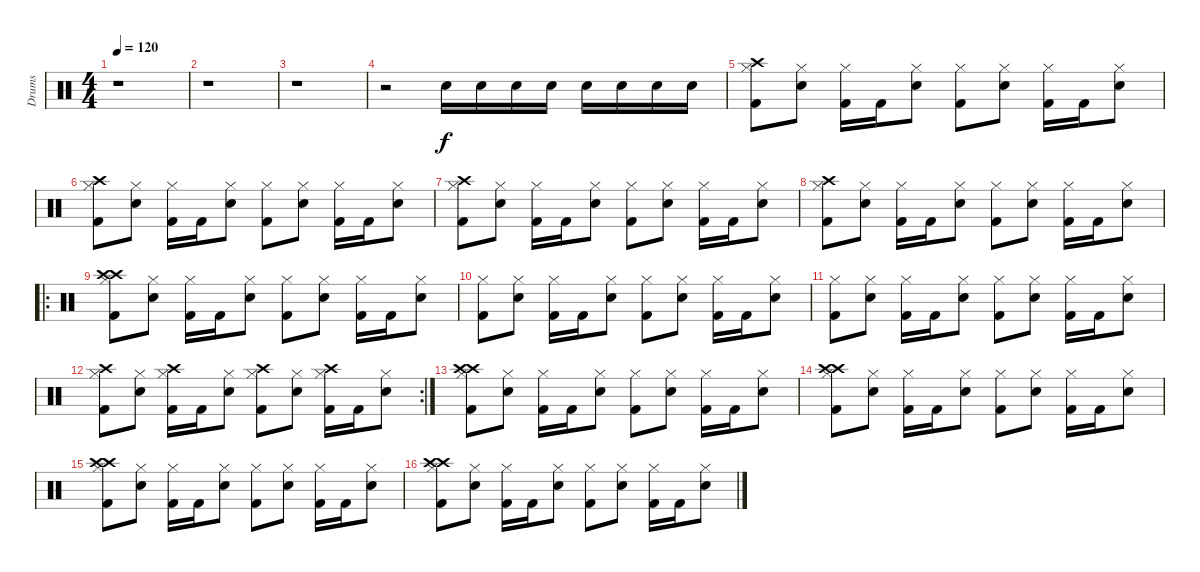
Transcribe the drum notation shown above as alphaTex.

\track ("Drums" "Drums") {instrument percussion}
\staff {score}
\articulation defaults
\ts (4 4)
\tempo 120
\clef neutral
\ks c
r.1{dy f} |
r.1 |
r.1 |
r.2 "Snare (hit) 2".16 "Snare (hit) 2".16 "Snare (hit) 2".16 "Snare (hit) 2".16 "Snare (hit) 2".16 "Snare (hit) 2".16 "Snare (hit) 2".16 "Snare (hit) 2".16 |
("Hi-Hat (closed)" "Crash high (hit)" "Kick (hit) 2").8 ("Hi-Hat (closed)" "Electric Snare (hit)").8 ("Hi-Hat (closed)" "Kick (hit) 2").16 "Kick (hit) 2".16 ("Hi-Hat (closed)" "Electric Snare (hit)").8 ("Hi-Hat (closed)" "Kick (hit) 2").8 ("Hi-Hat (closed)" "Electric Snare (hit)").8 ("Hi-Hat (closed)" "Kick (hit) 2").16 "Kick (hit) 2".16 ("Hi-Hat (closed)" "Electric Snare (hit)").8 |
("Hi-Hat (closed)" "Crash high (hit)" "Kick (hit) 2").8 ("Hi-Hat (closed)" "Electric Snare (hit)").8 ("Hi-Hat (closed)" "Kick (hit) 2").16 "Kick (hit) 2".16 ("Hi-Hat (closed)" "Electric Snare (hit)").8 ("Hi-Hat (closed)" "Kick (hit) 2").8 ("Hi-Hat (closed)" "Electric Snare (hit)").8 ("Hi-Hat (closed)" "Kick (hit) 2").16 "Kick (hit) 2".16 ("Hi-Hat (closed)" "Electric Snare (hit)").8 |
("Hi-Hat (closed)" "Crash high (hit)" "Kick (hit) 2").8 ("Hi-Hat (closed)" "Electric Snare (hit)").8 ("Hi-Hat (closed)" "Kick (hit) 2").16 "Kick (hit) 2".16 ("Hi-Hat (closed)" "Electric Snare (hit)").8 ("Hi-Hat (closed)" "Kick (hit) 2").8 ("Hi-Hat (closed)" "Electric Snare (hit)").8 ("Hi-Hat (closed)" "Kick (hit) 2").16 "Kick (hit) 2".16 ("Hi-Hat (closed)" "Electric Snare (hit)").8 |
("Hi-Hat (closed)" "Crash high (hit)" "Kick (hit) 2").8 ("Hi-Hat (closed)" "Electric Snare (hit)").8 ("Hi-Hat (closed)" "Kick (hit) 2").16 "Kick (hit) 2".16 ("Hi-Hat (closed)" "Electric Snare (hit)").8 ("Hi-Hat (closed)" "Kick (hit) 2").8 ("Hi-Hat (closed)" "Electric Snare (hit)").8 ("Hi-Hat (closed)" "Kick (hit) 2").16 "Kick (hit) 2".16 ("Hi-Hat (closed)" "Electric Snare (hit)").8 |
\ro
("Crash high (hit)" "Hi-Hat (closed)" "Crash high (hit)" "Kick (hit) 2").8 ("Hi-Hat (closed)" "Electric Snare (hit)").8 ("Hi-Hat (closed)" "Kick (hit) 2").16 "Kick (hit) 2".16 ("Hi-Hat (closed)" "Electric Snare (hit)").8 ("Hi-Hat (closed)" "Kick (hit) 2").8 ("Hi-Hat (closed)" "Electric Snare (hit)").8 ("Hi-Hat (closed)" "Kick (hit) 2").16 "Kick (hit) 2".16 ("Hi-Hat (closed)" "Electric Snare (hit)").8 |
("Hi-Hat (closed)" "Kick (hit) 2").8 ("Hi-Hat (closed)" "Electric Snare (hit)").8 ("Hi-Hat (closed)" "Kick (hit) 2").16 "Kick (hit) 2".16 ("Hi-Hat (closed)" "Electric Snare (hit)").8 ("Hi-Hat (closed)" "Kick (hit) 2").8 ("Hi-Hat (closed)" "Electric Snare (hit)").8 ("Hi-Hat (closed)" "Kick (hit) 2").16 "Kick (hit) 2".16 ("Hi-Hat (closed)" "Electric Snare (hit)").8 |
("Hi-Hat (closed)" "Kick (hit) 2").8 ("Hi-Hat (closed)" "Electric Snare (hit)").8 ("Hi-Hat (closed)" "Kick (hit) 2").16 "Kick (hit) 2".16 ("Hi-Hat (closed)" "Electric Snare (hit)").8 ("Hi-Hat (closed)" "Kick (hit) 2").8 ("Hi-Hat (closed)" "Electric Snare (hit)").8 ("Hi-Hat (closed)" "Kick (hit) 2").16 "Kick (hit) 2".16 ("Hi-Hat (closed)" "Electric Snare (hit)").8 |
\rc 2
("Hi-Hat (closed)" "Crash high (hit)" "Kick (hit) 2").8 ("Hi-Hat (closed)" "Electric Snare (hit)").8 ("Hi-Hat (closed)" "Crash high (hit)" "Kick (hit) 2").16 "Kick (hit) 2".16 ("Hi-Hat (closed)" "Electric Snare (hit)").8 ("Hi-Hat (closed)" "Crash high (hit)" "Kick (hit) 2").8 ("Hi-Hat (closed)" "Electric Snare (hit)").8 ("Hi-Hat (closed)" "Crash high (hit)" "Kick (hit) 2").16 "Kick (hit) 2".16 ("Hi-Hat (closed)" "Electric Snare (hit)").8 |
("Crash high (hit)" "Hi-Hat (closed)" "Crash high (hit)" "Kick (hit) 2").8 ("Hi-Hat (closed)" "Electric Snare (hit)").8 ("Hi-Hat (closed)" "Kick (hit) 2").16 "Kick (hit) 2".16 ("Hi-Hat (closed)" "Electric Snare (hit)").8 ("Hi-Hat (closed)" "Kick (hit) 2").8 ("Hi-Hat (closed)" "Electric Snare (hit)").8 ("Hi-Hat (closed)" "Kick (hit) 2").16 "Kick (hit) 2".16 ("Hi-Hat (closed)" "Electric Snare (hit)").8 |
("Crash high (hit)" "Hi-Hat (closed)" "Crash high (hit)" "Kick (hit) 2").8 ("Hi-Hat (closed)" "Electric Snare (hit)").8 ("Hi-Hat (closed)" "Kick (hit) 2").16 "Kick (hit) 2".16 ("Hi-Hat (closed)" "Electric Snare (hit)").8 ("Hi-Hat (closed)" "Kick (hit) 2").8 ("Hi-Hat (closed)" "Electric Snare (hit)").8 ("Hi-Hat (closed)" "Kick (hit) 2").16 "Kick (hit) 2".16 ("Hi-Hat (closed)" "Electric Snare (hit)").8 |
("Crash high (hit)" "Hi-Hat (closed)" "Crash high (hit)" "Kick (hit) 2").8 ("Hi-Hat (closed)" "Electric Snare (hit)").8 ("Hi-Hat (closed)" "Kick (hit) 2").16 "Kick (hit) 2".16 ("Hi-Hat (closed)" "Electric Snare (hit)").8 ("Hi-Hat (closed)" "Kick (hit) 2").8 ("Hi-Hat (closed)" "Electric Snare (hit)").8 ("Hi-Hat (closed)" "Kick (hit) 2").16 "Kick (hit) 2".16 ("Hi-Hat (closed)" "Electric Snare (hit)").8 |
("Crash high (hit)" "Hi-Hat (closed)" "Crash high (hit)" "Kick (hit) 2").8 ("Hi-Hat (closed)" "Electric Snare (hit)").8 ("Hi-Hat (closed)" "Kick (hit) 2").16 "Kick (hit) 2".16 ("Hi-Hat (closed)" "Electric Snare (hit)").8 ("Hi-Hat (closed)" "Kick (hit) 2").8 ("Hi-Hat (closed)" "Electric Snare (hit)").8 ("Hi-Hat (closed)" "Kick (hit) 2").16 "Kick (hit) 2".16 ("Hi-Hat (closed)" "Electric Snare (hit)").8
